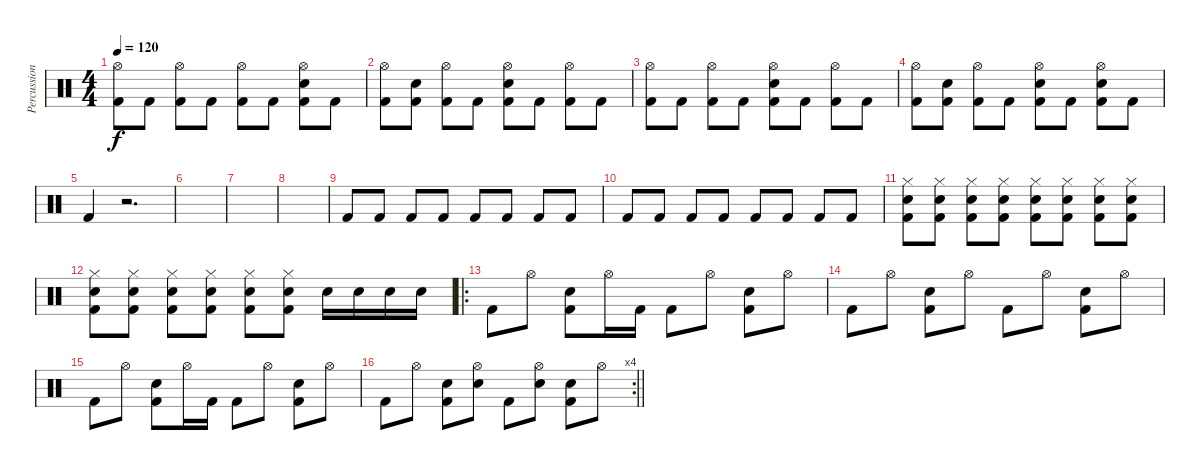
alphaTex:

\track ("Percussion" "Percussion") {instrument percussion}
\staff {score}
\articulation defaults
\ts (4 4)
\tempo 120
\clef neutral
\ks c
("Hi-Hat (open)" "Kick (hit) 2").8{dy f} "Kick (hit) 2".8 ("Hi-Hat (open)" "Kick (hit) 2").8 "Kick (hit) 2".8 ("Hi-Hat (open)" "Kick (hit) 2").8 "Kick (hit) 2".8 ("Hi-Hat (open)" "Electric Snare (hit)" "Kick (hit) 2").8 "Kick (hit) 2".8 |
("Hi-Hat (open)" "Kick (hit) 2").8 ("Electric Snare (hit)" "Kick (hit) 2").8 ("Hi-Hat (open)" "Kick (hit) 2").8 "Kick (hit) 2".8 ("Hi-Hat (open)" "Electric Snare (hit)" "Kick (hit) 2").8 "Kick (hit) 2".8 ("Hi-Hat (open)" "Kick (hit) 2").8 "Kick (hit) 2".8 |
("Hi-Hat (open)" "Kick (hit) 2").8 "Kick (hit) 2".8 ("Hi-Hat (open)" "Kick (hit) 2").8 "Kick (hit) 2".8 ("Hi-Hat (open)" "Electric Snare (hit)" "Kick (hit) 2").8 "Kick (hit) 2".8 ("Hi-Hat (open)" "Kick (hit) 2").8 "Kick (hit) 2".8 |
("Hi-Hat (open)" "Kick (hit) 2").8 ("Electric Snare (hit)" "Kick (hit) 2").8 ("Hi-Hat (open)" "Kick (hit) 2").8 "Kick (hit) 2".8 ("Hi-Hat (open)" "Electric Snare (hit)" "Kick (hit) 2").8 "Kick (hit) 2".8 ("Hi-Hat (open)" "Electric Snare (hit)" "Kick (hit) 2").8 "Kick (hit) 2".8 |
"Kick (hit) 2".4 r.2{d} |
|
|
|
"Kick (hit) 2".8 "Kick (hit) 2".8 "Kick (hit) 2".8 "Kick (hit) 2".8 "Kick (hit) 2".8 "Kick (hit) 2".8 "Kick (hit) 2".8 "Kick (hit) 2".8 |
"Kick (hit) 2".8 "Kick (hit) 2".8 "Kick (hit) 2".8 "Kick (hit) 2".8 "Kick (hit) 2".8 "Kick (hit) 2".8 "Kick (hit) 2".8 "Kick (hit) 2".8 |
("Hi-Hat (closed)" "Electric Snare (hit)" "Kick (hit) 2").8 ("Hi-Hat (closed)" "Electric Snare (hit)" "Kick (hit) 2").8 ("Hi-Hat (closed)" "Electric Snare (hit)" "Kick (hit) 2").8 ("Hi-Hat (closed)" "Electric Snare (hit)" "Kick (hit) 2").8 ("Hi-Hat (closed)" "Electric Snare (hit)" "Kick (hit) 2").8 ("Hi-Hat (closed)" "Electric Snare (hit)" "Kick (hit) 2").8 ("Hi-Hat (closed)" "Electric Snare (hit)" "Kick (hit) 2").8 ("Hi-Hat (closed)" "Electric Snare (hit)" "Kick (hit) 2").8 |
("Hi-Hat (closed)" "Electric Snare (hit)" "Kick (hit) 2").8 ("Hi-Hat (closed)" "Electric Snare (hit)" "Kick (hit) 2").8 ("Hi-Hat (closed)" "Electric Snare (hit)" "Kick (hit) 2").8 ("Hi-Hat (closed)" "Electric Snare (hit)" "Kick (hit) 2").8 ("Hi-Hat (closed)" "Electric Snare (hit)" "Kick (hit) 2").8 ("Hi-Hat (closed)" "Electric Snare (hit)" "Kick (hit) 2").8 "Electric Snare (hit)".16 "Electric Snare (hit)".16 "Electric Snare (hit)".16 "Electric Snare (hit)".16 |
\ro "Kick (hit) 2".8 "Hi-Hat (open)".8
("Electric Snare (hit)" "Kick (hit) 2").8 "Hi-Hat (open)".16 "Kick (hit) 2".16 "Kick (hit) 2".8 "Hi-Hat (open)".8 ("Electric Snare (hit)" "Kick (hit) 2").8 "Hi-Hat (open)".8 |
"Kick (hit) 2".8 "Hi-Hat (open)".8 ("Electric Snare (hit)" "Kick (hit) 2").8 "Hi-Hat (open)".8 "Kick (hit) 2".8 "Hi-Hat (open)".8 ("Electric Snare (hit)" "Kick (hit) 2").8 "Hi-Hat (open)".8 |
"Kick (hit) 2".8 "Hi-Hat (open)".8 ("Electric Snare (hit)" "Kick (hit) 2").8 "Hi-Hat (open)".16 "Kick (hit) 2".16 "Kick (hit) 2".8 "Hi-Hat (open)".8 ("Electric Snare (hit)" "Kick (hit) 2").8 "Hi-Hat (open)".8 |
\rc 4
\barLineRight lightlight "Kick (hit) 2".8 "Hi-Hat (open)".8
("Electric Snare (hit)" "Kick (hit) 2").8 ("Hi-Hat (open)" "Electric Snare (hit)").8 "Kick (hit) 2".8 ("Hi-Hat (open)" "Electric Snare (hit)").8 ("Electric Snare (hit)" "Kick (hit) 2").8 "Hi-Hat (open)".8
